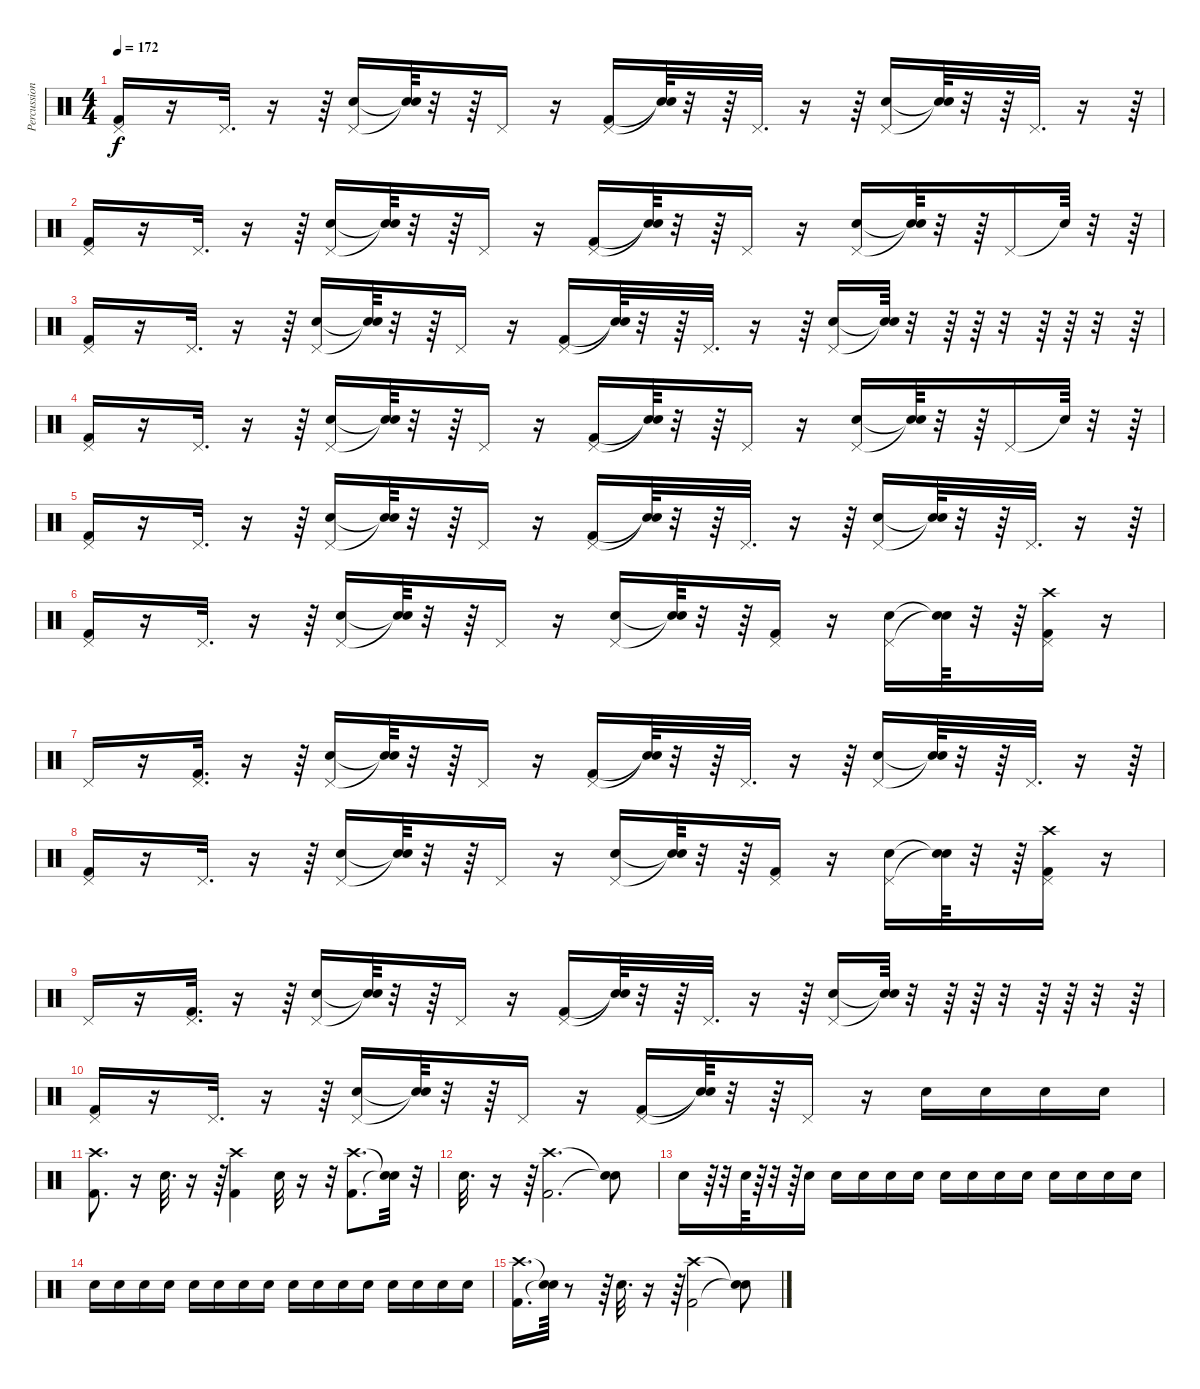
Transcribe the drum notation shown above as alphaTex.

\track ("Percussions" "Percussion") {instrument percussion}
\staff {score}
\articulation defaults
\ts (4 4)
\tempo 172
\clef neutral
\ks c
("Pedal Hi-Hat (hit)" "Kick (hit) 2").16{dy f} r.16 "Pedal Hi-Hat (hit)".32{d} r.16 r.64 ("Pedal Hi-Hat (hit)" "Snare (hit) 2").16 ("Snare (hit)"{t} "Snare (hit)"{t}).64 r.32 r.64 "Pedal Hi-Hat (hit)".16 r.16 ("Pedal Hi-Hat (hit)" "Kick (hit) 2").16 ("Snare (hit)"{t} "Snare (hit)"{t}).64 r.32 r.64 "Pedal Hi-Hat (hit)".32{d} r.16 r.64 ("Pedal Hi-Hat (hit)" "Snare (hit) 2").16 ("Snare (hit)"{t} "Snare (hit)"{t}).64 r.32 r.64 "Pedal Hi-Hat (hit)".32{d} r.16 r.64 |
("Pedal Hi-Hat (hit)" "Kick (hit) 2").16 r.16 "Pedal Hi-Hat (hit)".32{d} r.16 r.64 ("Pedal Hi-Hat (hit)" "Snare (hit) 2").16 ("Snare (hit)"{t} "Snare (hit)"{t}).64 r.32 r.64 "Pedal Hi-Hat (hit)".16 r.16 ("Pedal Hi-Hat (hit)" "Kick (hit) 2").16 ("Snare (hit)"{t} "Snare (hit)"{t}).64 r.32 r.64 "Pedal Hi-Hat (hit)".16 r.16 ("Pedal Hi-Hat (hit)" "Snare (hit) 2").16 ("Snare (hit)"{t} "Snare (hit)"{t}).64 r.32 r.64 "Pedal Hi-Hat (hit)".16 "Snare (hit)"{t}.64 r.32 r.64 |
("Pedal Hi-Hat (hit)" "Kick (hit) 2").16 r.16 "Pedal Hi-Hat (hit)".32{d} r.16 r.64 ("Pedal Hi-Hat (hit)" "Snare (hit) 2").16 ("Snare (hit)"{t} "Snare (hit)"{t}).64 r.32 r.64 "Pedal Hi-Hat (hit)".16 r.16 ("Pedal Hi-Hat (hit)" "Kick (hit) 2").16 ("Snare (hit)"{t} "Snare (hit)"{t}).64 r.32 r.64 "Pedal Hi-Hat (hit)".32{d} r.16 r.64 ("Pedal Hi-Hat (hit)" "Snare (hit) 2").16 ("Snare (hit)"{t} "Snare (hit)"{t}).64 r.32 r.64 r.64 r.32 r.64 r.64 r.32 r.64 |
("Pedal Hi-Hat (hit)" "Kick (hit) 2").16 r.16 "Pedal Hi-Hat (hit)".32{d} r.16 r.64 ("Pedal Hi-Hat (hit)" "Snare (hit) 2").16 ("Snare (hit)"{t} "Snare (hit)"{t}).64 r.32 r.64 "Pedal Hi-Hat (hit)".16 r.16 ("Pedal Hi-Hat (hit)" "Kick (hit) 2").16 ("Snare (hit)"{t} "Snare (hit)"{t}).64 r.32 r.64 "Pedal Hi-Hat (hit)".16 r.16 ("Pedal Hi-Hat (hit)" "Snare (hit) 2").16 ("Snare (hit)"{t} "Snare (hit)"{t}).64 r.32 r.64 "Pedal Hi-Hat (hit)".16 "Snare (hit)"{t}.64 r.32 r.64 |
("Pedal Hi-Hat (hit)" "Kick (hit) 2").16 r.16 "Pedal Hi-Hat (hit)".32{d} r.16 r.64 ("Pedal Hi-Hat (hit)" "Snare (hit) 2").16 ("Snare (hit)"{t} "Snare (hit)"{t}).64 r.32 r.64 "Pedal Hi-Hat (hit)".16 r.16 ("Pedal Hi-Hat (hit)" "Kick (hit) 2").16 ("Snare (hit)"{t} "Snare (hit)"{t}).64 r.32 r.64 "Pedal Hi-Hat (hit)".32{d} r.16 r.64 ("Pedal Hi-Hat (hit)" "Snare (hit) 2").16 ("Snare (hit)"{t} "Snare (hit)"{t}).64 r.32 r.64 "Pedal Hi-Hat (hit)".32{d} r.16 r.64 |
("Pedal Hi-Hat (hit)" "Kick (hit) 2").16 r.16 "Pedal Hi-Hat (hit)".32{d} r.16 r.64 ("Pedal Hi-Hat (hit)" "Snare (hit) 2").16 ("Snare (hit)"{t} "Snare (hit)"{t}).64 r.32 r.64 "Pedal Hi-Hat (hit)".16 r.16 ("Pedal Hi-Hat (hit)" "Snare (hit) 2").16 ("Snare (hit)"{t} "Snare (hit)"{t}).64 r.32 r.64 ("Pedal Hi-Hat (hit)" "Kick (hit) 2").16 r.16 ("Pedal Hi-Hat (hit)" "Snare (hit) 2").16 ("Snare (hit)"{t} "Snare (hit)"{t}).64 r.32 r.64 ("Crash high (hit)" "Pedal Hi-Hat (hit)" "Kick (hit) 2").16 r.16 |
"Pedal Hi-Hat (hit)".16 r.16 ("Pedal Hi-Hat (hit)" "Kick (hit) 2").32{d} r.16 r.64 ("Pedal Hi-Hat (hit)" "Snare (hit) 2").16 ("Snare (hit)"{t} "Snare (hit)"{t}).64 r.32 r.64 "Pedal Hi-Hat (hit)".16 r.16 ("Pedal Hi-Hat (hit)" "Kick (hit) 2").16 ("Snare (hit)"{t} "Snare (hit)"{t}).64 r.32 r.64 "Pedal Hi-Hat (hit)".32{d} r.16 r.64 ("Pedal Hi-Hat (hit)" "Snare (hit) 2").16 ("Snare (hit)"{t} "Snare (hit)"{t}).64 r.32 r.64 "Pedal Hi-Hat (hit)".32{d} r.16 r.64 |
("Pedal Hi-Hat (hit)" "Kick (hit) 2").16 r.16 "Pedal Hi-Hat (hit)".32{d} r.16 r.64 ("Pedal Hi-Hat (hit)" "Snare (hit) 2").16 ("Snare (hit)"{t} "Snare (hit)"{t}).64 r.32 r.64 "Pedal Hi-Hat (hit)".16 r.16 ("Pedal Hi-Hat (hit)" "Snare (hit) 2").16 ("Snare (hit)"{t} "Snare (hit)"{t}).64 r.32 r.64 ("Pedal Hi-Hat (hit)" "Kick (hit) 2").16 r.16 ("Pedal Hi-Hat (hit)" "Snare (hit) 2").16 ("Snare (hit)"{t} "Snare (hit)"{t}).64 r.32 r.64 ("Crash high (hit)" "Pedal Hi-Hat (hit)" "Kick (hit) 2").16 r.16 |
"Pedal Hi-Hat (hit)".16 r.16 ("Pedal Hi-Hat (hit)" "Kick (hit) 2").32{d} r.16 r.64 ("Pedal Hi-Hat (hit)" "Snare (hit) 2").16 ("Snare (hit)"{t} "Snare (hit)"{t}).64 r.32 r.64 "Pedal Hi-Hat (hit)".16 r.16 ("Pedal Hi-Hat (hit)" "Kick (hit) 2").16 ("Snare (hit)"{t} "Snare (hit)"{t}).64 r.32 r.64 "Pedal Hi-Hat (hit)".32{d} r.16 r.64 ("Pedal Hi-Hat (hit)" "Snare (hit) 2").16 ("Snare (hit)"{t} "Snare (hit)"{t}).64 r.32 r.64 r.64 r.32 r.64 r.64 r.32 r.64 |
("Pedal Hi-Hat (hit)" "Kick (hit) 2").16 r.16 "Pedal Hi-Hat (hit)".32{d} r.16 r.64 ("Pedal Hi-Hat (hit)" "Snare (hit) 2").16 ("Snare (hit)"{t} "Snare (hit)"{t}).64 r.32 r.64 "Pedal Hi-Hat (hit)".16 r.16 ("Pedal Hi-Hat (hit)" "Kick (hit) 2").16 ("Snare (hit)"{t} "Snare (hit)"{t}).64 r.32 r.64 "Pedal Hi-Hat (hit)".16 r.16 "Snare (hit) 2".16 "Snare (hit) 2".16 "Snare (hit) 2".16 "Snare (hit) 2".16 |
("Kick (hit) 2" "Crash high (hit)").8{d} r.16 "Snare (hit) 2".32{d} r.16 r.64 ("Crash high (hit)" "Kick (hit) 2").4 "Snare (hit) 2".32 r.16 r.32 ("Kick (hit) 2" "Crash high (hit)").8{d} ("Snare (hit)"{t} "Snare (hit)"{t}).32 r.32 |
"Snare (hit) 2".32{d} r.16 r.64 ("Kick (hit) 2" "Crash high (hit)").2{d} ("Snare (hit)"{t} "Snare (hit)"{t}).8 |
"Snare (hit) 2".16 r.64 r.32 "Snare (hit) 2".64 r.64 r.32 r.64 "Snare (hit) 2".16 "Snare (hit) 2".16 "Snare (hit) 2".16 "Snare (hit) 2".16 "Snare (hit) 2".16 "Snare (hit) 2".16 "Snare (hit) 2".16 "Snare (hit) 2".16 "Snare (hit) 2".16 "Snare (hit) 2".16 "Snare (hit) 2".16 "Snare (hit) 2".16 "Snare (hit) 2".16 |
"Snare (hit) 2".16 "Snare (hit) 2".16 "Snare (hit) 2".16 "Snare (hit) 2".16 "Snare (hit) 2".16 "Snare (hit) 2".16 "Snare (hit) 2".16 "Snare (hit) 2".16 "Snare (hit) 2".16 "Snare (hit) 2".16 "Snare (hit) 2".16 "Snare (hit) 2".16 "Snare (hit) 2".16 "Snare (hit) 2".16 "Snare (hit) 2".16 "Snare (hit) 2".16 |
("Kick (hit) 2" "Crash high (hit)").16{d} ("Snare (hit)"{t} "Snare (hit)"{t}).64 r.8 r.64 "Snare (hit) 2".32{d} r.16 r.64 ("Crash high (hit)" "Kick (hit) 2").2 ("Snare (hit)"{t} "Snare (hit)"{t}).8
